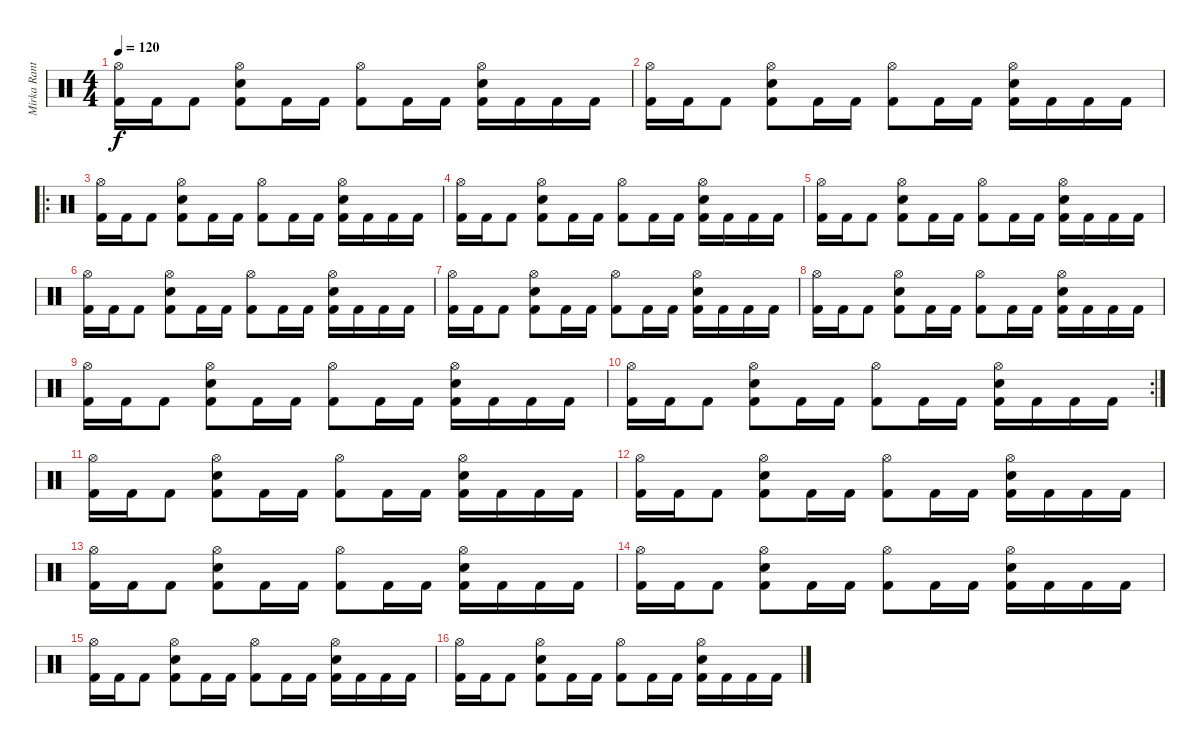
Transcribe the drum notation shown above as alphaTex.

\track ("Mirka Rantanen" "Mirka Rant") {instrument percussion}
\staff {score}
\articulation defaults
\ts (4 4)
\tempo 120
\clef neutral
\ks c
("Hi-Hat (open)" "Kick (hit) 2").16{dy f} "Kick (hit) 2".16 "Kick (hit) 2".8 ("Hi-Hat (open)" "Snare (hit) 2" "Kick (hit) 2").8 "Kick (hit) 2".16 "Kick (hit) 2".16 ("Hi-Hat (open)" "Kick (hit) 2").8 "Kick (hit) 2".16 "Kick (hit) 2".16 ("Snare (hit) 2" "Hi-Hat (open)" "Kick (hit) 2").16 "Kick (hit) 2".16 "Kick (hit) 2".16 "Kick (hit) 2".16 |
("Hi-Hat (open)" "Kick (hit) 2").16 "Kick (hit) 2".16 "Kick (hit) 2".8 ("Hi-Hat (open)" "Snare (hit) 2" "Kick (hit) 2").8 "Kick (hit) 2".16 "Kick (hit) 2".16 ("Hi-Hat (open)" "Kick (hit) 2").8 "Kick (hit) 2".16 "Kick (hit) 2".16 ("Snare (hit) 2" "Hi-Hat (open)" "Kick (hit) 2").16 "Kick (hit) 2".16 "Kick (hit) 2".16 "Kick (hit) 2".16 |
\ro
("Hi-Hat (open)" "Kick (hit) 2").16 "Kick (hit) 2".16 "Kick (hit) 2".8 ("Hi-Hat (open)" "Snare (hit) 2" "Kick (hit) 2").8 "Kick (hit) 2".16 "Kick (hit) 2".16 ("Hi-Hat (open)" "Kick (hit) 2").8 "Kick (hit) 2".16 "Kick (hit) 2".16 ("Snare (hit) 2" "Hi-Hat (open)" "Kick (hit) 2").16 "Kick (hit) 2".16 "Kick (hit) 2".16 "Kick (hit) 2".16 |
("Hi-Hat (open)" "Kick (hit) 2").16 "Kick (hit) 2".16 "Kick (hit) 2".8 ("Hi-Hat (open)" "Snare (hit) 2" "Kick (hit) 2").8 "Kick (hit) 2".16 "Kick (hit) 2".16 ("Hi-Hat (open)" "Kick (hit) 2").8 "Kick (hit) 2".16 "Kick (hit) 2".16 ("Snare (hit) 2" "Hi-Hat (open)" "Kick (hit) 2").16 "Kick (hit) 2".16 "Kick (hit) 2".16 "Kick (hit) 2".16 |
("Hi-Hat (open)" "Kick (hit) 2").16 "Kick (hit) 2".16 "Kick (hit) 2".8 ("Hi-Hat (open)" "Snare (hit) 2" "Kick (hit) 2").8 "Kick (hit) 2".16 "Kick (hit) 2".16 ("Hi-Hat (open)" "Kick (hit) 2").8 "Kick (hit) 2".16 "Kick (hit) 2".16 ("Snare (hit) 2" "Hi-Hat (open)" "Kick (hit) 2").16 "Kick (hit) 2".16 "Kick (hit) 2".16 "Kick (hit) 2".16 |
("Hi-Hat (open)" "Kick (hit) 2").16 "Kick (hit) 2".16 "Kick (hit) 2".8 ("Hi-Hat (open)" "Snare (hit) 2" "Kick (hit) 2").8 "Kick (hit) 2".16 "Kick (hit) 2".16 ("Hi-Hat (open)" "Kick (hit) 2").8 "Kick (hit) 2".16 "Kick (hit) 2".16 ("Snare (hit) 2" "Hi-Hat (open)" "Kick (hit) 2").16 "Kick (hit) 2".16 "Kick (hit) 2".16 "Kick (hit) 2".16 |
("Hi-Hat (open)" "Kick (hit) 2").16 "Kick (hit) 2".16 "Kick (hit) 2".8 ("Hi-Hat (open)" "Snare (hit) 2" "Kick (hit) 2").8 "Kick (hit) 2".16 "Kick (hit) 2".16 ("Hi-Hat (open)" "Kick (hit) 2").8 "Kick (hit) 2".16 "Kick (hit) 2".16 ("Snare (hit) 2" "Hi-Hat (open)" "Kick (hit) 2").16 "Kick (hit) 2".16 "Kick (hit) 2".16 "Kick (hit) 2".16 |
("Hi-Hat (open)" "Kick (hit) 2").16 "Kick (hit) 2".16 "Kick (hit) 2".8 ("Hi-Hat (open)" "Snare (hit) 2" "Kick (hit) 2").8 "Kick (hit) 2".16 "Kick (hit) 2".16 ("Hi-Hat (open)" "Kick (hit) 2").8 "Kick (hit) 2".16 "Kick (hit) 2".16 ("Snare (hit) 2" "Hi-Hat (open)" "Kick (hit) 2").16 "Kick (hit) 2".16 "Kick (hit) 2".16 "Kick (hit) 2".16 |
("Hi-Hat (open)" "Kick (hit) 2").16 "Kick (hit) 2".16 "Kick (hit) 2".8 ("Hi-Hat (open)" "Snare (hit) 2" "Kick (hit) 2").8 "Kick (hit) 2".16 "Kick (hit) 2".16 ("Hi-Hat (open)" "Kick (hit) 2").8 "Kick (hit) 2".16 "Kick (hit) 2".16 ("Snare (hit) 2" "Hi-Hat (open)" "Kick (hit) 2").16 "Kick (hit) 2".16 "Kick (hit) 2".16 "Kick (hit) 2".16 |
\rc 2
("Hi-Hat (open)" "Kick (hit) 2").16 "Kick (hit) 2".16 "Kick (hit) 2".8 ("Hi-Hat (open)" "Snare (hit) 2" "Kick (hit) 2").8 "Kick (hit) 2".16 "Kick (hit) 2".16 ("Hi-Hat (open)" "Kick (hit) 2").8 "Kick (hit) 2".16 "Kick (hit) 2".16 ("Snare (hit) 2" "Hi-Hat (open)" "Kick (hit) 2").16 "Kick (hit) 2".16 "Kick (hit) 2".16 "Kick (hit) 2".16 |
("Hi-Hat (open)" "Kick (hit) 2").16 "Kick (hit) 2".16 "Kick (hit) 2".8 ("Hi-Hat (open)" "Snare (hit) 2" "Kick (hit) 2").8 "Kick (hit) 2".16 "Kick (hit) 2".16 ("Hi-Hat (open)" "Kick (hit) 2").8 "Kick (hit) 2".16 "Kick (hit) 2".16 ("Snare (hit) 2" "Hi-Hat (open)" "Kick (hit) 2").16 "Kick (hit) 2".16 "Kick (hit) 2".16 "Kick (hit) 2".16 |
("Hi-Hat (open)" "Kick (hit) 2").16 "Kick (hit) 2".16 "Kick (hit) 2".8 ("Hi-Hat (open)" "Snare (hit) 2" "Kick (hit) 2").8 "Kick (hit) 2".16 "Kick (hit) 2".16 ("Hi-Hat (open)" "Kick (hit) 2").8 "Kick (hit) 2".16 "Kick (hit) 2".16 ("Snare (hit) 2" "Hi-Hat (open)" "Kick (hit) 2").16 "Kick (hit) 2".16 "Kick (hit) 2".16 "Kick (hit) 2".16 |
("Hi-Hat (open)" "Kick (hit) 2").16 "Kick (hit) 2".16 "Kick (hit) 2".8 ("Hi-Hat (open)" "Snare (hit) 2" "Kick (hit) 2").8 "Kick (hit) 2".16 "Kick (hit) 2".16 ("Hi-Hat (open)" "Kick (hit) 2").8 "Kick (hit) 2".16 "Kick (hit) 2".16 ("Snare (hit) 2" "Hi-Hat (open)" "Kick (hit) 2").16 "Kick (hit) 2".16 "Kick (hit) 2".16 "Kick (hit) 2".16 |
("Hi-Hat (open)" "Kick (hit) 2").16 "Kick (hit) 2".16 "Kick (hit) 2".8 ("Hi-Hat (open)" "Snare (hit) 2" "Kick (hit) 2").8 "Kick (hit) 2".16 "Kick (hit) 2".16 ("Hi-Hat (open)" "Kick (hit) 2").8 "Kick (hit) 2".16 "Kick (hit) 2".16 ("Snare (hit) 2" "Hi-Hat (open)" "Kick (hit) 2").16 "Kick (hit) 2".16 "Kick (hit) 2".16 "Kick (hit) 2".16 |
("Hi-Hat (open)" "Kick (hit) 2").16 "Kick (hit) 2".16 "Kick (hit) 2".8 ("Hi-Hat (open)" "Snare (hit) 2" "Kick (hit) 2").8 "Kick (hit) 2".16 "Kick (hit) 2".16 ("Hi-Hat (open)" "Kick (hit) 2").8 "Kick (hit) 2".16 "Kick (hit) 2".16 ("Snare (hit) 2" "Hi-Hat (open)" "Kick (hit) 2").16 "Kick (hit) 2".16 "Kick (hit) 2".16 "Kick (hit) 2".16 |
("Hi-Hat (open)" "Kick (hit) 2").16 "Kick (hit) 2".16 "Kick (hit) 2".8 ("Hi-Hat (open)" "Snare (hit) 2" "Kick (hit) 2").8 "Kick (hit) 2".16 "Kick (hit) 2".16 ("Hi-Hat (open)" "Kick (hit) 2").8 "Kick (hit) 2".16 "Kick (hit) 2".16 ("Snare (hit) 2" "Hi-Hat (open)" "Kick (hit) 2").16 "Kick (hit) 2".16 "Kick (hit) 2".16 "Kick (hit) 2".16
